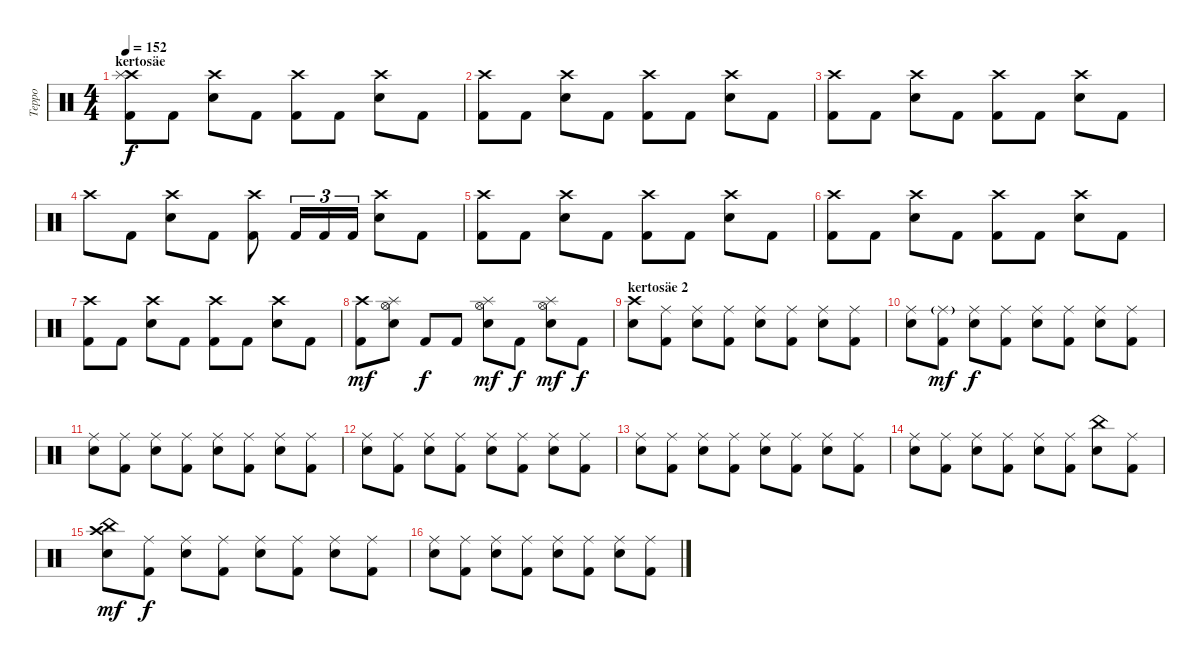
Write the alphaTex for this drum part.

\track ("Teppo" "Teppo") {instrument percussion}
\staff {score}
\articulation defaults
\ts (4 4)
\section ("" "kertosäe")
\tempo 152
\clef neutral
\ks c
("Crash high (hit)" "Splash (hit)" "Kick (hit) 2").8{dy f} "Kick (hit) 2".8 ("Crash high (hit)" "Electric Snare (hit)").8 "Kick (hit) 2".8 ("Crash high (hit)" "Kick (hit) 2").8 "Kick (hit) 2".8 ("Crash high (hit)" "Electric Snare (hit)").8 "Kick (hit) 2".8 |
("Crash high (hit)" "Kick (hit) 2").8 "Kick (hit) 2".8 ("Crash high (hit)" "Electric Snare (hit)").8 "Kick (hit) 2".8 ("Crash high (hit)" "Kick (hit) 2").8 "Kick (hit) 2".8 ("Crash high (hit)" "Electric Snare (hit)").8 "Kick (hit) 2".8 |
("Crash high (hit)" "Kick (hit) 2").8 "Kick (hit) 2".8 ("Crash high (hit)" "Electric Snare (hit)").8 "Kick (hit) 2".8 ("Crash high (hit)" "Kick (hit) 2").8 "Kick (hit) 2".8 ("Crash high (hit)" "Electric Snare (hit)").8 "Kick (hit) 2".8 |
"Crash high (hit)".8 "Kick (hit) 2".8 ("Crash high (hit)" "Electric Snare (hit)").8 "Kick (hit) 2".8 ("Crash high (hit)" "Kick (hit) 2").8 "Kick (hit) 2".16{tu (3 2)} "Kick (hit) 2".16{tu (3 2)} "Kick (hit) 2".16{tu (3 2)} ("Crash high (hit)" "Electric Snare (hit)").8 "Kick (hit) 2".8 |
("Crash high (hit)" "Kick (hit) 2").8 "Kick (hit) 2".8 ("Crash high (hit)" "Electric Snare (hit)").8 "Kick (hit) 2".8 ("Crash high (hit)" "Kick (hit) 2").8 "Kick (hit) 2".8 ("Crash high (hit)" "Electric Snare (hit)").8 "Kick (hit) 2".8 |
("Crash high (hit)" "Kick (hit) 2").8 "Kick (hit) 2".8 ("Crash high (hit)" "Electric Snare (hit)").8 "Kick (hit) 2".8 ("Crash high (hit)" "Kick (hit) 2").8 "Kick (hit) 2".8 ("Crash high (hit)" "Electric Snare (hit)").8 "Kick (hit) 2".8 |
("Crash high (hit)" "Kick (hit) 2").8 "Kick (hit) 2".8 ("Crash high (hit)" "Electric Snare (hit)").8 "Kick (hit) 2".8 ("Crash high (hit)" "Kick (hit) 2").8 "Kick (hit) 2".8 ("Crash high (hit)" "Electric Snare (hit)").8 "Kick (hit) 2".8 |
("Crash high (hit)" "Kick (hit) 2").8{dy mf} ("Hi-Hat (open)" "Splash (hit)" "Electric Snare (hit)").8 "Kick (hit) 2".8{dy f} "Kick (hit) 2".8 ("Hi-Hat (open)" "Splash (hit)" "Electric Snare (hit)").8{dy mf} "Kick (hit) 2".8{dy f} ("Hi-Hat (open)" "Splash (hit)" "Electric Snare (hit)").8{dy mf} "Kick (hit) 2".8{dy f} |
\section ("" "kertosäe 2")
("Crash high (hit)" "Electric Snare (hit)").8 ("Ride (middle)" "Kick (hit) 2").8 ("Ride (middle)" "Electric Snare (hit)").8 ("Ride (middle)" "Kick (hit) 2").8 ("Ride (middle)" "Electric Snare (hit)").8 ("Ride (middle)" "Kick (hit) 2").8 ("Ride (middle)" "Electric Snare (hit)").8 ("Ride (middle)" "Kick (hit) 2").8 |
("Ride (middle)" "Electric Snare (hit)").8 ("Ride (middle)"{g} "Kick (hit) 2").8{dy mf} ("Ride (middle)" "Electric Snare (hit)").8{dy f} ("Ride (middle)" "Kick (hit) 2").8 ("Ride (middle)" "Electric Snare (hit)").8 ("Ride (middle)" "Kick (hit) 2").8 ("Ride (middle)" "Electric Snare (hit)").8 ("Ride (middle)" "Kick (hit) 2").8 |
("Ride (middle)" "Electric Snare (hit)").8 ("Ride (middle)" "Kick (hit) 2").8 ("Ride (middle)" "Electric Snare (hit)").8 ("Ride (middle)" "Kick (hit) 2").8 ("Ride (middle)" "Electric Snare (hit)").8 ("Ride (middle)" "Kick (hit) 2").8 ("Ride (middle)" "Electric Snare (hit)").8 ("Ride (middle)" "Kick (hit) 2").8 |
("Ride (middle)" "Electric Snare (hit)").8 ("Ride (middle)" "Kick (hit) 2").8 ("Ride (middle)" "Electric Snare (hit)").8 ("Ride (middle)" "Kick (hit) 2").8 ("Ride (middle)" "Electric Snare (hit)").8 ("Ride (middle)" "Kick (hit) 2").8 ("Ride (middle)" "Electric Snare (hit)").8 ("Ride (middle)" "Kick (hit) 2").8 |
("Ride (middle)" "Electric Snare (hit)").8 ("Ride (middle)" "Kick (hit) 2").8 ("Ride (middle)" "Electric Snare (hit)").8 ("Ride (middle)" "Kick (hit) 2").8 ("Ride (middle)" "Electric Snare (hit)").8 ("Ride (middle)" "Kick (hit) 2").8 ("Ride (middle)" "Electric Snare (hit)").8 ("Ride (middle)" "Kick (hit) 2").8 |
("Ride (middle)" "Electric Snare (hit)").8 ("Ride (middle)" "Kick (hit) 2").8 ("Ride (middle)" "Electric Snare (hit)").8 ("Ride (middle)" "Kick (hit) 2").8 ("Ride (middle)" "Electric Snare (hit)").8 ("Ride (middle)" "Kick (hit) 2").8 ("China (hit)" "Electric Snare (hit)").8 ("Ride (middle)" "Kick (hit) 2").8 |
("China (hit)" "Crash high (hit)" "Electric Snare (hit)").8{dy mf} ("Ride (middle)" "Kick (hit) 2").8{dy f} ("Ride (middle)" "Electric Snare (hit)").8 ("Ride (middle)" "Kick (hit) 2").8 ("Ride (middle)" "Electric Snare (hit)").8 ("Ride (middle)" "Kick (hit) 2").8 ("Ride (middle)" "Electric Snare (hit)").8 ("Ride (middle)" "Kick (hit) 2").8 |
("Ride (middle)" "Electric Snare (hit)").8 ("Ride (middle)" "Kick (hit) 2").8 ("Ride (middle)" "Electric Snare (hit)").8 ("Ride (middle)" "Kick (hit) 2").8 ("Ride (middle)" "Electric Snare (hit)").8 ("Ride (middle)" "Kick (hit) 2").8 ("Ride (middle)" "Electric Snare (hit)").8 ("Ride (middle)" "Kick (hit) 2").8
